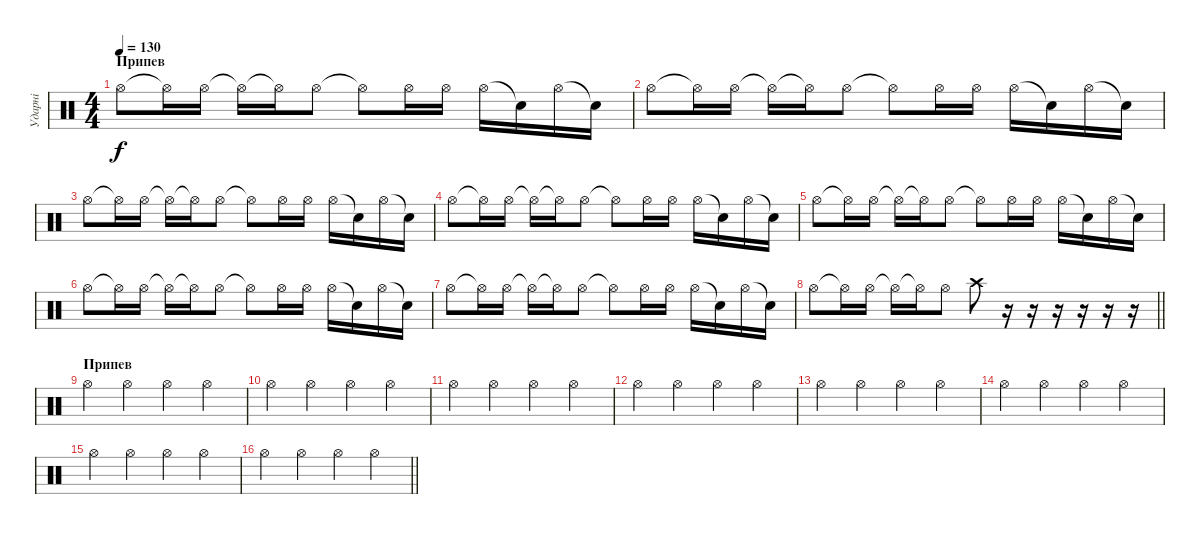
\track ("Ударні" "Ударні") {instrument percussion}
\staff {score}
\articulation defaults
\ts (4 4)
\section ("" "Припев")
\tempo 130
\clef neutral
\ks c "Hi-Hat (open)".8{dy f} "Hi-Hat (open)"{t}.16 "Hi-Hat (open)".16 "Hi-Hat (open)"{t}.16 "Hi-Hat (open)"{t}.16 "Hi-Hat (open)".8 "Hi-Hat (open)"{t}.8 "Hi-Hat (open)".16 "Hi-Hat (open)".16 "Hi-Hat (open)".16 "Snare (hit)"{t}.16 "Hi-Hat (open)".16 "Snare (hit)"{t}.16
|
"Hi-Hat (open)".8 "Hi-Hat (open)"{t}.16 "Hi-Hat (open)".16 "Hi-Hat (open)"{t}.16 "Hi-Hat (open)"{t}.16 "Hi-Hat (open)".8 "Hi-Hat (open)"{t}.8 "Hi-Hat (open)".16 "Hi-Hat (open)".16 "Hi-Hat (open)".16 "Snare (hit)"{t}.16 "Hi-Hat (open)".16 "Snare (hit)"{t}.16 |
"Hi-Hat (open)".8 "Hi-Hat (open)"{t}.16 "Hi-Hat (open)".16 "Hi-Hat (open)"{t}.16 "Hi-Hat (open)"{t}.16 "Hi-Hat (open)".8 "Hi-Hat (open)"{t}.8 "Hi-Hat (open)".16 "Hi-Hat (open)".16 "Hi-Hat (open)".16 "Snare (hit)"{t}.16 "Hi-Hat (open)".16 "Snare (hit)"{t}.16 |
"Hi-Hat (open)".8 "Hi-Hat (open)"{t}.16 "Hi-Hat (open)".16 "Hi-Hat (open)"{t}.16 "Hi-Hat (open)"{t}.16 "Hi-Hat (open)".8 "Hi-Hat (open)"{t}.8 "Hi-Hat (open)".16 "Hi-Hat (open)".16 "Hi-Hat (open)".16 "Snare (hit)"{t}.16 "Hi-Hat (open)".16 "Snare (hit)"{t}.16 |
"Hi-Hat (open)".8 "Hi-Hat (open)"{t}.16 "Hi-Hat (open)".16 "Hi-Hat (open)"{t}.16 "Hi-Hat (open)"{t}.16 "Hi-Hat (open)".8 "Hi-Hat (open)"{t}.8 "Hi-Hat (open)".16 "Hi-Hat (open)".16 "Hi-Hat (open)".16 "Snare (hit)"{t}.16 "Hi-Hat (open)".16 "Snare (hit)"{t}.16 |
"Hi-Hat (open)".8 "Hi-Hat (open)"{t}.16 "Hi-Hat (open)".16 "Hi-Hat (open)"{t}.16 "Hi-Hat (open)"{t}.16 "Hi-Hat (open)".8 "Hi-Hat (open)"{t}.8 "Hi-Hat (open)".16 "Hi-Hat (open)".16 "Hi-Hat (open)".16 "Snare (hit)"{t}.16 "Hi-Hat (open)".16 "Snare (hit)"{t}.16 |
"Hi-Hat (open)".8 "Hi-Hat (open)"{t}.16 "Hi-Hat (open)".16 "Hi-Hat (open)"{t}.16 "Hi-Hat (open)"{t}.16 "Hi-Hat (open)".8 "Hi-Hat (open)"{t}.8 "Hi-Hat (open)".16 "Hi-Hat (open)".16 "Hi-Hat (open)".16 "Snare (hit)"{t}.16 "Hi-Hat (open)".16 "Snare (hit)"{t}.16 |
\barLineRight lightlight "Hi-Hat (open)".8 "Hi-Hat (open)"{t}.16 "Hi-Hat (open)".16 "Hi-Hat (open)"{t}.16 "Hi-Hat (open)"{t}.16 "Hi-Hat (open)".8 "Crash high (hit)".8
r.16 r.16 r.16 r.16 r.16 r.16 |
\section ("" "Припев")
"Hi-Hat (open)".4 "Hi-Hat (open)".4 "Hi-Hat (open)".4 "Hi-Hat (open)".4 |
"Hi-Hat (open)".4 "Hi-Hat (open)".4 "Hi-Hat (open)".4 "Hi-Hat (open)".4 |
"Hi-Hat (open)".4 "Hi-Hat (open)".4 "Hi-Hat (open)".4 "Hi-Hat (open)".4 |
"Hi-Hat (open)".4 "Hi-Hat (open)".4 "Hi-Hat (open)".4 "Hi-Hat (open)".4 |
"Hi-Hat (open)".4 "Hi-Hat (open)".4 "Hi-Hat (open)".4 "Hi-Hat (open)".4 |
"Hi-Hat (open)".4 "Hi-Hat (open)".4 "Hi-Hat (open)".4 "Hi-Hat (open)".4 |
"Hi-Hat (open)".4 "Hi-Hat (open)".4 "Hi-Hat (open)".4 "Hi-Hat (open)".4 |
\barLineRight lightlight "Hi-Hat (open)".4 "Hi-Hat (open)".4 "Hi-Hat (open)".4 "Hi-Hat (open)".4
